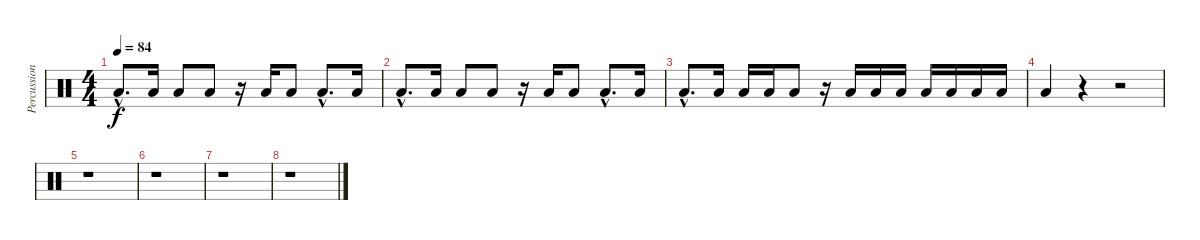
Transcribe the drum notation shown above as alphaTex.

\track ("Percussion" "Percussion") {instrument percussion}
\staff {score}
\articulation defaults
\ts (4 4)
\tempo 84
\clef neutral
\ks c "Low Floor Tom (hit)"{hac}.8{d dy f} "Low Floor Tom (hit)".16 "Low Floor Tom (hit)".8 "Low Floor Tom (hit)".8
r.16 "Low Floor Tom (hit)".16 "Low Floor Tom (hit)".8 "Low Floor Tom (hit)"{hac}.8{d} "Low Floor Tom (hit)".16 |
"Low Floor Tom (hit)"{hac}.8{d} "Low Floor Tom (hit)".16 "Low Floor Tom (hit)".8 "Low Floor Tom (hit)".8 r.16 "Low Floor Tom (hit)".16 "Low Floor Tom (hit)".8 "Low Floor Tom (hit)"{hac}.8{d} "Low Floor Tom (hit)".16 |
"Low Floor Tom (hit)"{hac}.8{d} "Low Floor Tom (hit)".16 "Low Floor Tom (hit)".16 "Low Floor Tom (hit)".16 "Low Floor Tom (hit)".8 r.16 "Low Floor Tom (hit)".16 "Low Floor Tom (hit)".16 "Low Floor Tom (hit)".16 "Low Floor Tom (hit)".16 "Low Floor Tom (hit)".16 "Low Floor Tom (hit)".16 "Low Floor Tom (hit)".16 |
"Low Floor Tom (hit)".4 r.4 r.2 |
r.1 |
r.1 |
r.1 |
r.1
